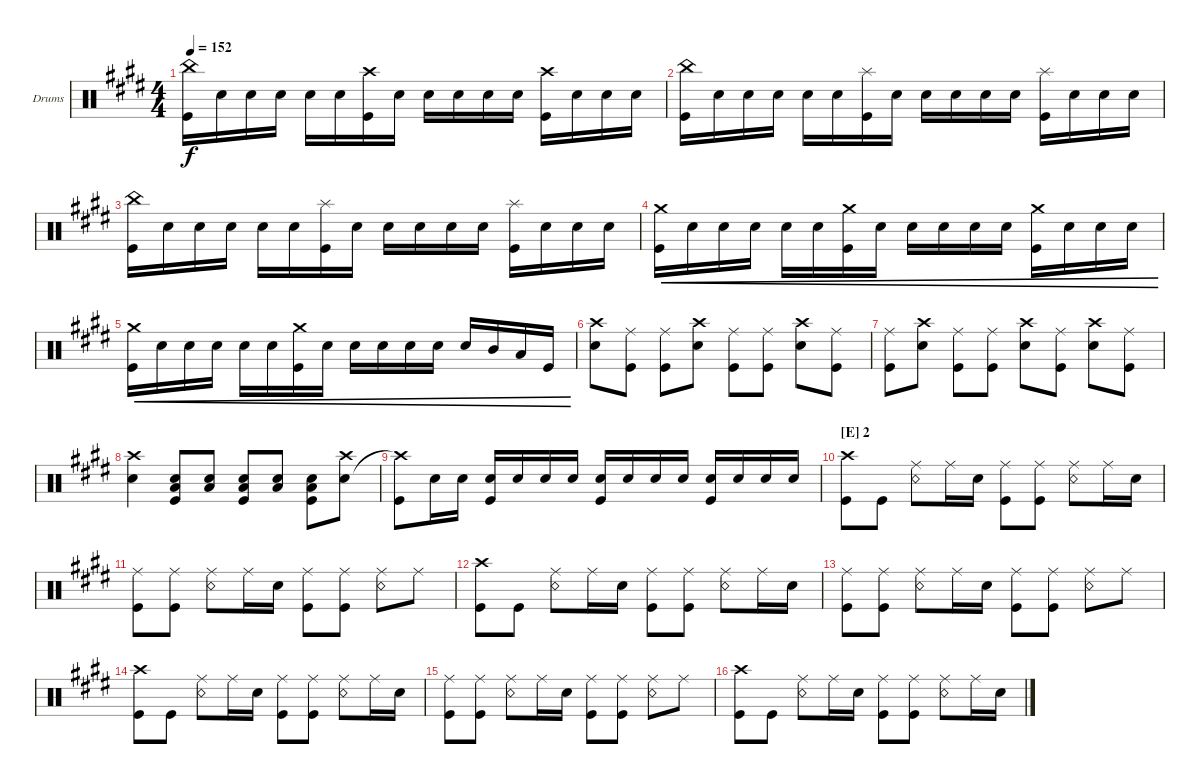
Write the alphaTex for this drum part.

\bracketExtendMode groupsimilarinstruments
\firstSystemTrackNameOrientation horizontal
\otherSystemsTrackNameOrientation horizontal
\track ("Ichigo" "Drums") {instrument percussion}
\staff {score}
\articulation defaults
\ts (4 4)
\tempo 152
\clef neutral
\ks e
("China (hit)" "Kick (hit)").16{dy f} "Snare (hit) 2".16 "Snare (hit) 2".16 "Snare (hit) 2".16 "Snare (hit) 2".16 "Snare (hit) 2".16 ("Crash high (hit)" "Kick (hit)").16 "Snare (hit) 2".16 "Snare (hit) 2".16 "Snare (hit) 2".16 "Snare (hit) 2".16 "Snare (hit) 2".16 ("Crash high (hit)" "Kick (hit)").16 "Snare (hit) 2".16 "Snare (hit) 2".16 "Snare (hit) 2".16 |
("China (hit)" "Kick (hit)").16 "Snare (hit) 2".16 "Snare (hit) 2".16 "Snare (hit) 2".16 "Snare (hit) 2".16 "Snare (hit) 2".16 ("Kick (hit)" "Splash (hit)").16 "Snare (hit) 2".16 "Snare (hit) 2".16 "Snare (hit) 2".16 "Snare (hit) 2".16 "Snare (hit) 2".16 ("Kick (hit)" "Splash (hit)").16 "Snare (hit) 2".16 "Snare (hit) 2".16 "Snare (hit) 2".16 |
("China (hit)" "Kick (hit)").16 "Snare (hit) 2".16 "Snare (hit) 2".16 "Snare (hit) 2".16 "Snare (hit) 2".16 "Snare (hit) 2".16 ("Kick (hit)" "Splash (hit)").16 "Snare (hit) 2".16 "Snare (hit) 2".16 "Snare (hit) 2".16 "Snare (hit) 2".16 "Snare (hit) 2".16 ("Kick (hit)" "Splash (hit)").16 "Snare (hit) 2".16 "Snare (hit) 2".16 "Snare (hit) 2".16 |
("Kick (hit)" "Crash medium (hit)").16{cre} "Snare (hit) 2".16{cre} "Snare (hit) 2".16{cre} "Snare (hit) 2".16{cre} "Snare (hit) 2".16{cre} "Snare (hit) 2".16{cre} ("Kick (hit)" "Crash medium (hit)").16{cre} "Snare (hit) 2".16{cre} "Snare (hit) 2".16{cre} "Snare (hit) 2".16{cre} "Snare (hit) 2".16{cre} "Snare (hit) 2".16{cre} ("Kick (hit)" "Crash medium (hit)").16{cre} "Snare (hit) 2".16{cre} "Snare (hit) 2".16{cre} "Snare (hit) 2".16{cre} |
("Kick (hit)" "Crash medium (hit)").16{cre} "Snare (hit) 2".16{cre} "Snare (hit) 2".16{cre} "Snare (hit) 2".16{cre} "Snare (hit) 2".16{cre} "Snare (hit) 2".16{cre} ("Kick (hit)" "Crash medium (hit)").16{cre} "Snare (hit) 2".16{cre} "Snare (hit) 2".16{cre} "Snare (hit) 2".16{cre} "Snare (hit) 2".16{cre} "Snare (hit) 2".16{cre} "Snare (hit) 2".16{cre} "Mid Tom (hit)".16{cre} "Low Tom (hit)".16{cre} "Kick (hit)".16{cre} |
("Crash high (hit)" "Snare (hit) 2").8 ("Ride (middle)" "Kick (hit)").8 ("Ride (middle)" "Kick (hit)").8 ("Crash high (hit)" "Snare (hit) 2").8 ("Ride (middle)" "Kick (hit)").8 ("Ride (middle)" "Kick (hit)").8 ("Crash high (hit)" "Snare (hit) 2").8 ("Ride (middle)" "Kick (hit)").8 |
("Ride (middle)" "Kick (hit)").8 ("Crash high (hit)" "Snare (hit) 2").8 ("Ride (middle)" "Kick (hit)").8 ("Ride (middle)" "Kick (hit)").8 ("Crash high (hit)" "Snare (hit) 2").8 ("Ride (middle)" "Kick (hit)").8 ("Crash high (hit)" "Snare (hit) 2").8 ("Ride (middle)" "Kick (hit)").8 |
("Snare (hit) 2" "Crash high (hit)").4 ("Snare (hit) 2" "Low Tom (hit)" "Kick (hit)").8 ("Snare (hit) 2" "Low Tom (hit)").8 ("Snare (hit) 2" "Low Tom (hit)" "Kick (hit)").8 ("Snare (hit) 2" "Low Tom (hit)").8 ("Snare (hit) 2" "Low Tom (hit)" "Kick (hit)").8 ("Snare (hit) 2" "Crash high (hit)").8 |
("Crash high (hit)"{t} "Kick (hit)").8 "Snare (hit) 2".16 "Snare (hit) 2".16 ("Snare (hit) 2" "Kick (hit)").16 "Snare (hit) 2".16 "Snare (hit) 2".16 "Snare (hit) 2".16 ("Snare (hit) 2" "Kick (hit)").16 "Snare (hit) 2".16 "Snare (hit) 2".16 "Snare (hit) 2".16 ("Snare (hit) 2" "Kick (hit)").16 "Snare (hit) 2".16 "Snare (hit) 2".16 "Snare (hit) 2".16 |
\section ("E" "2")
("Crash high (hit)" "Kick (hit)").8 "Kick (hit)".8 ("Snare (rim shot)" "Ride (middle)").8 "Ride (middle)".16 "Snare (hit) 2".16 ("Kick (hit)" "Ride (middle)").8 ("Kick (hit)" "Ride (middle)").8 ("Snare (rim shot)" "Ride (middle)").8 "Ride (middle)".16 "Snare (hit) 2".16 |
("Kick (hit)" "Ride (middle)").8 ("Kick (hit)" "Ride (middle)").8 ("Snare (rim shot)" "Ride (middle)").8 "Ride (middle)".16 "Snare (hit) 2".16 ("Kick (hit)" "Ride (middle)").8 ("Kick (hit)" "Ride (middle)").8 ("Snare (rim shot)" "Ride (middle)").8 "Ride (middle)".8 |
("Crash high (hit)" "Kick (hit)").8 "Kick (hit)".8 ("Snare (rim shot)" "Ride (middle)").8 "Ride (middle)".16 "Snare (hit) 2".16 ("Kick (hit)" "Ride (middle)").8 ("Kick (hit)" "Ride (middle)").8 ("Snare (rim shot)" "Ride (middle)").8 "Ride (middle)".16 "Snare (hit) 2".16 |
("Kick (hit)" "Ride (middle)").8 ("Kick (hit)" "Ride (middle)").8 ("Snare (rim shot)" "Ride (middle)").8 "Ride (middle)".16 "Snare (hit) 2".16 ("Kick (hit)" "Ride (middle)").8 ("Kick (hit)" "Ride (middle)").8 ("Snare (rim shot)" "Ride (middle)").8 "Ride (middle)".8 |
("Crash high (hit)" "Kick (hit)").8 "Kick (hit)".8 ("Snare (rim shot)" "Ride (middle)").8 "Ride (middle)".16 "Snare (hit) 2".16 ("Kick (hit)" "Ride (middle)").8 ("Kick (hit)" "Ride (middle)").8 ("Snare (rim shot)" "Ride (middle)").8 "Ride (middle)".16 "Snare (hit) 2".16 |
("Kick (hit)" "Ride (middle)").8 ("Kick (hit)" "Ride (middle)").8 ("Snare (rim shot)" "Ride (middle)").8 "Ride (middle)".16 "Snare (hit) 2".16 ("Kick (hit)" "Ride (middle)").8 ("Kick (hit)" "Ride (middle)").8 ("Snare (rim shot)" "Ride (middle)").8 "Ride (middle)".8 |
("Crash high (hit)" "Kick (hit)").8 "Kick (hit)".8 ("Snare (rim shot)" "Ride (middle)").8 "Ride (middle)".16 "Snare (hit) 2".16 ("Kick (hit)" "Ride (middle)").8 ("Kick (hit)" "Ride (middle)").8 ("Snare (rim shot)" "Ride (middle)").8 "Ride (middle)".16 "Snare (hit) 2".16
